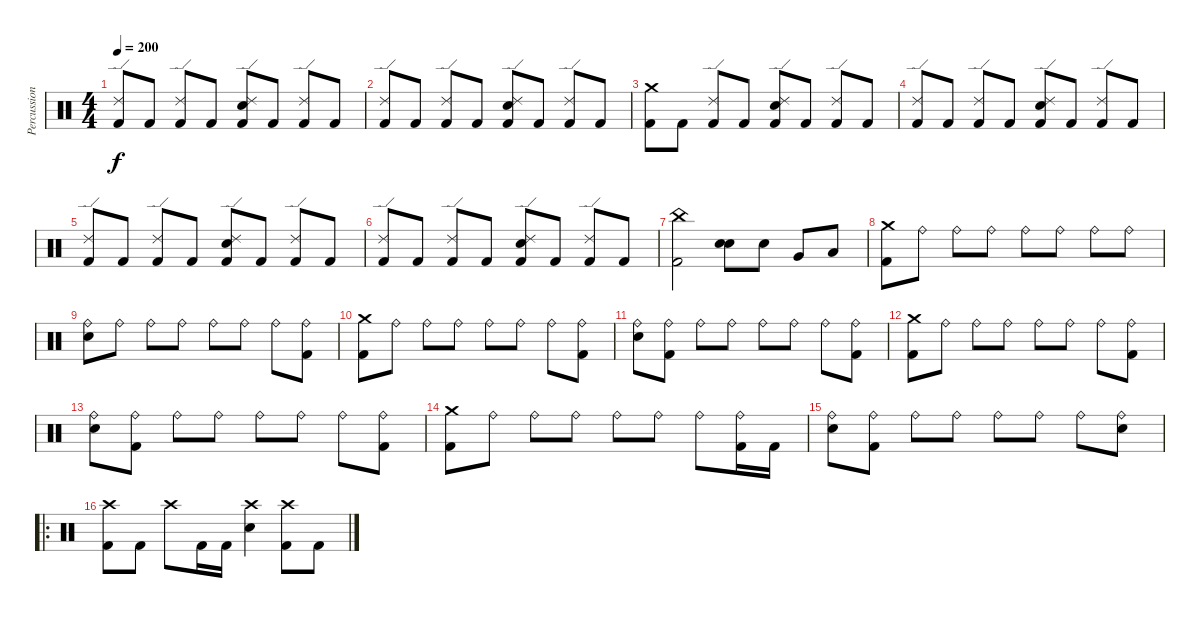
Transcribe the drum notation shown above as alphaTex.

\track ("Percussions" "Percussion") {instrument percussion}
\staff {score}
\articulation defaults
\ts (4 4)
\tempo 200
\clef neutral
\ks c
("Ride (edge) 2" "Kick (hit) 2").8{dy f} "Kick (hit) 2".8 ("Ride (edge) 2" "Kick (hit) 2").8 "Kick (hit) 2".8 ("Ride (edge) 2" "Snare (hit) 2" "Kick (hit) 2").8 "Kick (hit) 2".8 ("Ride (edge) 2" "Kick (hit) 2").8 "Kick (hit) 2".8 |
("Ride (edge) 2" "Kick (hit) 2").8 "Kick (hit) 2".8 ("Ride (edge) 2" "Kick (hit) 2").8 "Kick (hit) 2".8 ("Ride (edge) 2" "Snare (hit) 2" "Kick (hit) 2").8 "Kick (hit) 2".8 ("Ride (edge) 2" "Kick (hit) 2").8 "Kick (hit) 2".8 |
("Crash medium (hit)" "Kick (hit) 2").8 "Kick (hit) 2".8 ("Ride (edge) 2" "Kick (hit) 2").8 "Kick (hit) 2".8 ("Ride (edge) 2" "Snare (hit) 2" "Kick (hit) 2").8 "Kick (hit) 2".8 ("Ride (edge) 2" "Kick (hit) 2").8 "Kick (hit) 2".8 |
("Ride (edge) 2" "Kick (hit) 2").8 "Kick (hit) 2".8 ("Ride (edge) 2" "Kick (hit) 2").8 "Kick (hit) 2".8 ("Ride (edge) 2" "Snare (hit) 2" "Kick (hit) 2").8 "Kick (hit) 2".8 ("Ride (edge) 2" "Kick (hit) 2").8 "Kick (hit) 2".8 |
("Ride (edge) 2" "Kick (hit) 2").8 "Kick (hit) 2".8 ("Ride (edge) 2" "Kick (hit) 2").8 "Kick (hit) 2".8 ("Ride (edge) 2" "Snare (hit) 2" "Kick (hit) 2").8 "Kick (hit) 2".8 ("Ride (edge) 2" "Kick (hit) 2").8 "Kick (hit) 2".8 |
("Ride (edge) 2" "Kick (hit) 2").8 "Kick (hit) 2".8 ("Ride (edge) 2" "Kick (hit) 2").8 "Kick (hit) 2".8 ("Ride (edge) 2" "Snare (hit) 2" "Kick (hit) 2").8 "Kick (hit) 2".8 ("Ride (edge) 2" "Kick (hit) 2").8 "Kick (hit) 2".8 |
("China (hit)" "Kick (hit) 2").2 ("Snare (hit) 2" "Snare (hit) 2").8{bd 240} "Snare (hit) 2".8 "Very Low Tom (hit)".8 "Low Floor Tom (hit)".8 |
("Crash medium (hit)" "Kick (hit) 2").8 "Ride (bell)".8 "Ride (bell)".8 "Ride (bell)".8 "Ride (bell)".8 "Ride (bell)".8 "Ride (bell)".8 "Ride (bell)".8 |
("Ride (bell)" "Snare (hit) 2").8 "Ride (bell)".8 "Ride (bell)".8 "Ride (bell)".8 "Ride (bell)".8 "Ride (bell)".8 "Ride (bell)".8 ("Ride (bell)" "Kick (hit) 2").8 |
("Crash medium (hit)" "Kick (hit) 2").8 "Ride (bell)".8 "Ride (bell)".8 "Ride (bell)".8 "Ride (bell)".8 "Ride (bell)".8 "Ride (bell)".8 ("Ride (bell)" "Kick (hit) 2").8 |
("Ride (bell)" "Snare (hit) 2").8 ("Ride (bell)" "Kick (hit) 2").8 "Ride (bell)".8 "Ride (bell)".8 "Ride (bell)".8 "Ride (bell)".8 "Ride (bell)".8 ("Ride (bell)" "Kick (hit) 2").8 |
("Crash medium (hit)" "Kick (hit) 2").8 "Ride (bell)".8 "Ride (bell)".8 "Ride (bell)".8 "Ride (bell)".8 "Ride (bell)".8 "Ride (bell)".8 ("Ride (bell)" "Kick (hit) 2").8 |
("Ride (bell)" "Snare (hit) 2").8 ("Ride (bell)" "Kick (hit) 2").8 "Ride (bell)".8 "Ride (bell)".8 "Ride (bell)".8 "Ride (bell)".8 "Ride (bell)".8 ("Ride (bell)" "Kick (hit) 2").8 |
("Crash medium (hit)" "Kick (hit) 2").8 "Ride (bell)".8 "Ride (bell)".8 "Ride (bell)".8 "Ride (bell)".8 "Ride (bell)".8 "Ride (bell)".8 ("Ride (bell)" "Kick (hit) 2").16 "Kick (hit) 2".16 |
("Ride (bell)" "Snare (hit) 2").8 ("Ride (bell)" "Kick (hit) 2").8 "Ride (bell)".8 "Ride (bell)".8 "Ride (bell)".8 "Ride (bell)".8 "Ride (bell)".8 ("Ride (bell)" "Snare (hit) 2").8 |
\ro
("Crash high (hit)" "Kick (hit) 2").8 "Kick (hit) 2".8 "Crash high (hit)".8 "Kick (hit) 2".16 "Kick (hit) 2".16 ("Crash high (hit)" "Snare (hit) 2").4 ("Crash high (hit)" "Kick (hit) 2").8 "Kick (hit) 2".8
